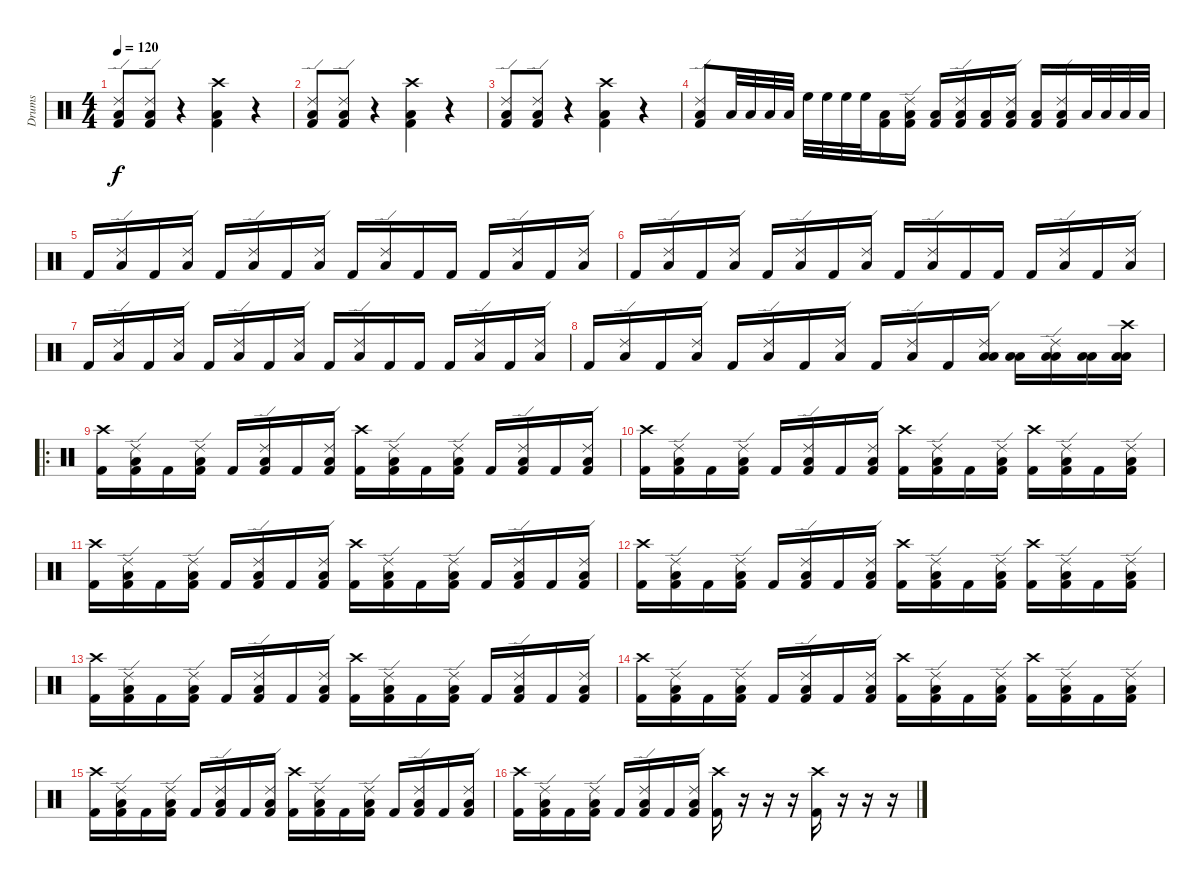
\track ("Drums" "Drums") {instrument percussion}
\staff {score}
\articulation defaults
\ts (4 4)
\tempo 120
\clef neutral
\ks c
("Ride (edge) 2" "Low Tom (hit)" "Kick (hit) 2").8{dy f} ("Ride (edge) 2" "Low Tom (hit)" "Kick (hit) 2").8 r.4 ("Crash high (hit)" "Low Tom (hit)" "Kick (hit) 2").4 r.4 |
("Ride (edge) 2" "Low Tom (hit)" "Kick (hit) 2").8 ("Ride (edge) 2" "Low Tom (hit)" "Kick (hit) 2").8 r.4 ("Crash high (hit)" "Low Tom (hit)" "Kick (hit) 2").4 r.4 |
("Ride (edge) 2" "Low Tom (hit)" "Kick (hit) 2").8 ("Ride (edge) 2" "Low Tom (hit)" "Kick (hit) 2").8 r.4 ("Crash high (hit)" "Low Tom (hit)" "Kick (hit) 2").4 r.4 |
("Ride (edge) 2" "Low Tom (hit)" "Kick (hit) 2").8 "Low Tom (hit)".32 "Low Tom (hit)".32 "Low Tom (hit)".32 "Low Tom (hit)".32 "High Floor Tom (hit)".32 "High Floor Tom (hit)".32 "High Floor Tom (hit)".32 "High Floor Tom (hit)".32 ("Low Tom (hit)" "Kick (hit) 2").16 ("Ride (edge) 2" "Low Tom (hit)" "Kick (hit) 2").16 ("Low Tom (hit)" "Kick (hit) 2").16 ("Ride (edge) 2" "Low Tom (hit)" "Kick (hit) 2").16 ("Low Tom (hit)" "Kick (hit) 2").16 ("Ride (edge) 2" "Low Tom (hit)" "Kick (hit) 2").16 ("Low Tom (hit)" "Kick (hit) 2").16 ("Ride (edge) 2" "Low Tom (hit)" "Kick (hit) 2").16 "Low Floor Tom (hit)".32 "Low Floor Tom (hit)".32 "Low Floor Tom (hit)".32 "Low Floor Tom (hit)".32 |
"Kick (hit) 2".16 ("Ride (edge) 2" "Low Tom (hit)").16 "Kick (hit) 2".16 ("Ride (edge) 2" "Low Tom (hit)").16 "Kick (hit) 2".16 ("Ride (edge) 2" "Low Tom (hit)").16 "Kick (hit) 2".16 ("Ride (edge) 2" "Low Tom (hit)").16 "Kick (hit) 2".16 ("Ride (edge) 2" "Low Tom (hit)").16 "Kick (hit) 2".16 "Kick (hit) 2".16 "Kick (hit) 2".16 ("Ride (edge) 2" "Low Tom (hit)").16 "Kick (hit) 2".16 ("Ride (edge) 2" "Low Tom (hit)").16 |
"Kick (hit) 2".16 ("Ride (edge) 2" "Low Tom (hit)").16 "Kick (hit) 2".16 ("Ride (edge) 2" "Low Tom (hit)").16 "Kick (hit) 2".16 ("Ride (edge) 2" "Low Tom (hit)").16 "Kick (hit) 2".16 ("Ride (edge) 2" "Low Tom (hit)").16 "Kick (hit) 2".16 ("Ride (edge) 2" "Low Tom (hit)").16 "Kick (hit) 2".16 "Kick (hit) 2".16 "Kick (hit) 2".16 ("Ride (edge) 2" "Low Tom (hit)").16 "Kick (hit) 2".16 ("Ride (edge) 2" "Low Tom (hit)").16 |
"Kick (hit) 2".16 ("Ride (edge) 2" "Low Tom (hit)").16 "Kick (hit) 2".16 ("Ride (edge) 2" "Low Tom (hit)").16 "Kick (hit) 2".16 ("Ride (edge) 2" "Low Tom (hit)").16 "Kick (hit) 2".16 ("Ride (edge) 2" "Low Tom (hit)").16 "Kick (hit) 2".16 ("Ride (edge) 2" "Low Tom (hit)").16 "Kick (hit) 2".16 "Kick (hit) 2".16 "Kick (hit) 2".16 ("Ride (edge) 2" "Low Tom (hit)").16 "Kick (hit) 2".16 ("Ride (edge) 2" "Low Tom (hit)").16 |
"Kick (hit) 2".16 ("Ride (edge) 2" "Low Tom (hit)").16 "Kick (hit) 2".16 ("Ride (edge) 2" "Low Tom (hit)").16 "Kick (hit) 2".16 ("Ride (edge) 2" "Low Tom (hit)").16 "Kick (hit) 2".16 ("Ride (edge) 2" "Low Tom (hit)").16 "Kick (hit) 2".16 ("Ride (edge) 2" "Low Tom (hit)").16 "Kick (hit) 2".16 ("Low Tom (hit)" "Ride (edge) 2" "Low Floor Tom (hit)").16 ("Low Tom (hit)" "Low Floor Tom (hit)").16 ("Low Tom (hit)" "Ride (edge) 2" "Low Floor Tom (hit)").16 ("Low Tom (hit)" "Low Floor Tom (hit)").16 ("Low Tom (hit)" "Crash high (hit)" "Low Floor Tom (hit)").16 |
\ro
("Crash high (hit)" "Kick (hit) 2").16 ("Ride (edge) 2" "Low Tom (hit)" "Kick (hit) 2").16 "Kick (hit) 2".16 ("Ride (edge) 2" "Low Tom (hit)" "Kick (hit) 2").16 "Kick (hit) 2".16 ("Ride (edge) 2" "Low Tom (hit)" "Kick (hit) 2").16 "Kick (hit) 2".16 ("Ride (edge) 2" "Low Tom (hit)" "Kick (hit) 2").16 ("Crash high (hit)" "Kick (hit) 2").16 ("Ride (edge) 2" "Low Tom (hit)" "Kick (hit) 2").16 "Kick (hit) 2".16 ("Ride (edge) 2" "Low Tom (hit)" "Kick (hit) 2").16 "Kick (hit) 2".16 ("Ride (edge) 2" "Low Tom (hit)" "Kick (hit) 2").16 "Kick (hit) 2".16 ("Ride (edge) 2" "Low Tom (hit)" "Kick (hit) 2").16 |
("Crash high (hit)" "Kick (hit) 2").16 ("Ride (edge) 2" "Low Tom (hit)" "Kick (hit) 2").16 "Kick (hit) 2".16 ("Ride (edge) 2" "Low Tom (hit)" "Kick (hit) 2").16 "Kick (hit) 2".16 ("Ride (edge) 2" "Low Tom (hit)" "Kick (hit) 2").16 "Kick (hit) 2".16 ("Ride (edge) 2" "Low Tom (hit)" "Kick (hit) 2").16 ("Crash high (hit)" "Kick (hit) 2").16 ("Ride (edge) 2" "Low Tom (hit)" "Kick (hit) 2").16 "Kick (hit) 2".16 ("Ride (edge) 2" "Low Tom (hit)" "Kick (hit) 2").16 ("Crash high (hit)" "Kick (hit) 2").16 ("Ride (edge) 2" "Low Tom (hit)" "Kick (hit) 2").16 "Kick (hit) 2".16 ("Ride (edge) 2" "Low Tom (hit)" "Kick (hit) 2").16 |
("Crash high (hit)" "Kick (hit) 2").16 ("Ride (edge) 2" "Low Tom (hit)" "Kick (hit) 2").16 "Kick (hit) 2".16 ("Ride (edge) 2" "Low Tom (hit)" "Kick (hit) 2").16 "Kick (hit) 2".16 ("Ride (edge) 2" "Low Tom (hit)" "Kick (hit) 2").16 "Kick (hit) 2".16 ("Ride (edge) 2" "Low Tom (hit)" "Kick (hit) 2").16 ("Crash high (hit)" "Kick (hit) 2").16 ("Ride (edge) 2" "Low Tom (hit)" "Kick (hit) 2").16 "Kick (hit) 2".16 ("Ride (edge) 2" "Low Tom (hit)" "Kick (hit) 2").16 "Kick (hit) 2".16 ("Ride (edge) 2" "Low Tom (hit)" "Kick (hit) 2").16 "Kick (hit) 2".16 ("Ride (edge) 2" "Low Tom (hit)" "Kick (hit) 2").16 |
("Crash high (hit)" "Kick (hit) 2").16 ("Ride (edge) 2" "Low Tom (hit)" "Kick (hit) 2").16 "Kick (hit) 2".16 ("Ride (edge) 2" "Low Tom (hit)" "Kick (hit) 2").16 "Kick (hit) 2".16 ("Ride (edge) 2" "Low Tom (hit)" "Kick (hit) 2").16 "Kick (hit) 2".16 ("Ride (edge) 2" "Low Tom (hit)" "Kick (hit) 2").16 ("Crash high (hit)" "Kick (hit) 2").16 ("Ride (edge) 2" "Low Tom (hit)" "Kick (hit) 2").16 "Kick (hit) 2".16 ("Ride (edge) 2" "Low Tom (hit)" "Kick (hit) 2").16 ("Crash high (hit)" "Kick (hit) 2").16 ("Ride (edge) 2" "Low Tom (hit)" "Kick (hit) 2").16 "Kick (hit) 2".16 ("Ride (edge) 2" "Low Tom (hit)" "Kick (hit) 2").16 |
("Crash high (hit)" "Kick (hit) 2").16 ("Ride (edge) 2" "Low Tom (hit)" "Kick (hit) 2").16 "Kick (hit) 2".16 ("Ride (edge) 2" "Low Tom (hit)" "Kick (hit) 2").16 "Kick (hit) 2".16 ("Ride (edge) 2" "Low Tom (hit)" "Kick (hit) 2").16 "Kick (hit) 2".16 ("Ride (edge) 2" "Low Tom (hit)" "Kick (hit) 2").16 ("Crash high (hit)" "Kick (hit) 2").16 ("Ride (edge) 2" "Low Tom (hit)" "Kick (hit) 2").16 "Kick (hit) 2".16 ("Ride (edge) 2" "Low Tom (hit)" "Kick (hit) 2").16 "Kick (hit) 2".16 ("Ride (edge) 2" "Low Tom (hit)" "Kick (hit) 2").16 "Kick (hit) 2".16 ("Ride (edge) 2" "Low Tom (hit)" "Kick (hit) 2").16 |
("Crash high (hit)" "Kick (hit) 2").16 ("Ride (edge) 2" "Low Tom (hit)" "Kick (hit) 2").16 "Kick (hit) 2".16 ("Ride (edge) 2" "Low Tom (hit)" "Kick (hit) 2").16 "Kick (hit) 2".16 ("Ride (edge) 2" "Low Tom (hit)" "Kick (hit) 2").16 "Kick (hit) 2".16 ("Ride (edge) 2" "Low Tom (hit)" "Kick (hit) 2").16 ("Crash high (hit)" "Kick (hit) 2").16 ("Ride (edge) 2" "Low Tom (hit)" "Kick (hit) 2").16 "Kick (hit) 2".16 ("Ride (edge) 2" "Low Tom (hit)" "Kick (hit) 2").16 ("Crash high (hit)" "Kick (hit) 2").16 ("Ride (edge) 2" "Low Tom (hit)" "Kick (hit) 2").16 "Kick (hit) 2".16 ("Ride (edge) 2" "Low Tom (hit)" "Kick (hit) 2").16 |
("Crash high (hit)" "Kick (hit) 2").16 ("Ride (edge) 2" "Low Tom (hit)" "Kick (hit) 2").16 "Kick (hit) 2".16 ("Ride (edge) 2" "Low Tom (hit)" "Kick (hit) 2").16 "Kick (hit) 2".16 ("Ride (edge) 2" "Low Tom (hit)" "Kick (hit) 2").16 "Kick (hit) 2".16 ("Ride (edge) 2" "Low Tom (hit)" "Kick (hit) 2").16 ("Crash high (hit)" "Kick (hit) 2").16 ("Ride (edge) 2" "Low Tom (hit)" "Kick (hit) 2").16 "Kick (hit) 2".16 ("Ride (edge) 2" "Low Tom (hit)" "Kick (hit) 2").16 "Kick (hit) 2".16 ("Ride (edge) 2" "Low Tom (hit)" "Kick (hit) 2").16 "Kick (hit) 2".16 ("Ride (edge) 2" "Low Tom (hit)" "Kick (hit) 2").16 |
("Crash high (hit)" "Kick (hit) 2").16 ("Ride (edge) 2" "Low Tom (hit)" "Kick (hit) 2").16 "Kick (hit) 2".16 ("Ride (edge) 2" "Low Tom (hit)" "Kick (hit) 2").16 "Kick (hit) 2".16 ("Ride (edge) 2" "Low Tom (hit)" "Kick (hit) 2").16 "Kick (hit) 2".16 ("Ride (edge) 2" "Low Tom (hit)" "Kick (hit) 2").16 ("Crash high (hit)" "Kick (hit) 2").16 r.16 r.16 r.16 ("Crash high (hit)" "Kick (hit) 2").16 r.16 r.16 r.16
